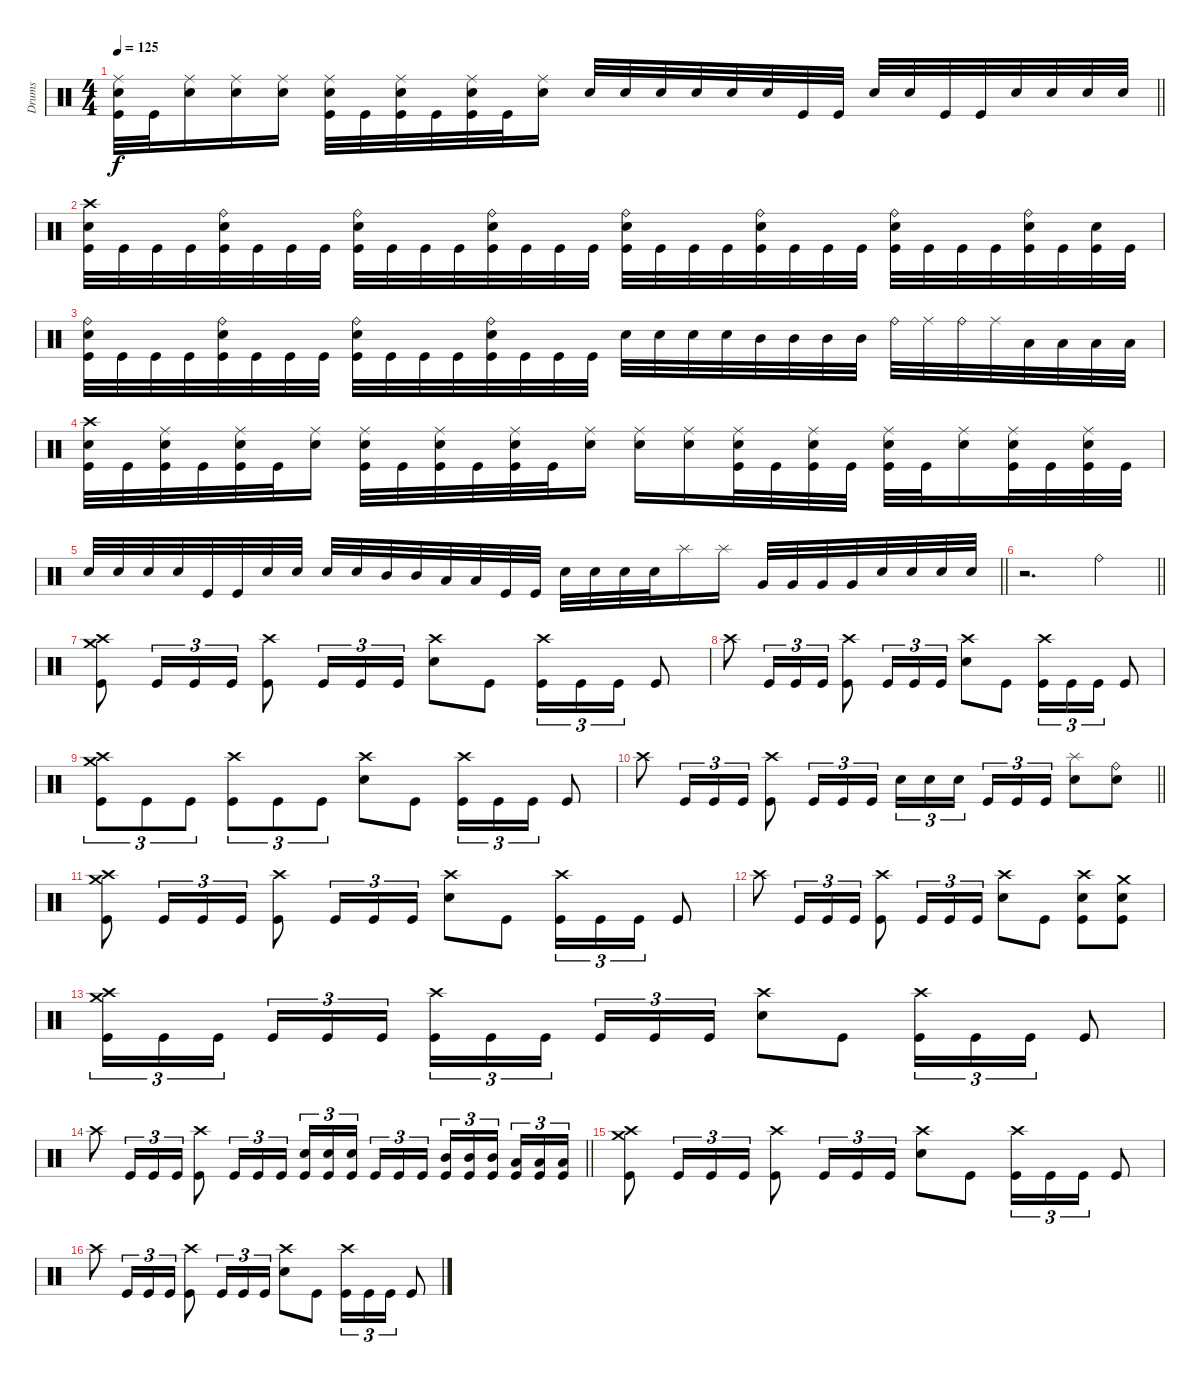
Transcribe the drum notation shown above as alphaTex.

\track ("Drums" "Drums") {instrument percussion}
\staff
\articulation defaults
\ts (4 4)
\tempo 125
\clef neutral
\barLineRight lightlight
\ks c
("Ride (middle)" "Electric Snare (hit)" "Kick (hit)").32{dy f} "Kick (hit)".32 ("Ride (middle)" "Electric Snare (hit)").16 ("Ride (middle)" "Electric Snare (hit)").16 ("Ride (middle)" "Electric Snare (hit)").16 ("Ride (middle)" "Electric Snare (hit)" "Kick (hit)").32 "Kick (hit)".32 ("Ride (middle)" "Electric Snare (hit)" "Kick (hit)").32 "Kick (hit)".32 ("Ride (middle)" "Electric Snare (hit)" "Kick (hit)").32 "Kick (hit)".32 ("Ride (middle)" "Electric Snare (hit)").16 "Electric Snare (hit)".32 "Electric Snare (hit)".32 "Electric Snare (hit)".32 "Electric Snare (hit)".32 "Electric Snare (hit)".32 "Electric Snare (hit)".32 "Kick (hit)".32 "Kick (hit)".32 "Electric Snare (hit)".32 "Electric Snare (hit)".32 "Kick (hit)".32 "Kick (hit)".32 "Electric Snare (hit)".32 "Electric Snare (hit)".32 "Electric Snare (hit)".32 "Electric Snare (hit)".32 |
("Crash high (hit)" "Electric Snare (hit)" "Kick (hit)").32 "Kick (hit)".32 "Kick (hit)".32 "Kick (hit)".32 ("Ride (bell)" "Electric Snare (hit)" "Kick (hit)").32 "Kick (hit)".32 "Kick (hit)".32 "Kick (hit)".32 ("Ride (bell)" "Electric Snare (hit)" "Kick (hit)").32 "Kick (hit)".32 "Kick (hit)".32 "Kick (hit)".32 ("Ride (bell)" "Electric Snare (hit)" "Kick (hit)").32 "Kick (hit)".32 "Kick (hit)".32 "Kick (hit)".32 ("Ride (bell)" "Electric Snare (hit)" "Kick (hit)").32 "Kick (hit)".32 "Kick (hit)".32 "Kick (hit)".32 ("Ride (bell)" "Electric Snare (hit)" "Kick (hit)").32 "Kick (hit)".32 "Kick (hit)".32 "Kick (hit)".32 ("Ride (bell)" "Electric Snare (hit)" "Kick (hit)").32 "Kick (hit)".32 "Kick (hit)".32 "Kick (hit)".32 ("Ride (bell)" "Electric Snare (hit)" "Kick (hit)").32 "Kick (hit)".32 ("Electric Snare (hit)" "Kick (hit)").32 "Kick (hit)".32 |
("Ride (bell)" "Electric Snare (hit)" "Kick (hit)").32 "Kick (hit)".32 "Kick (hit)".32 "Kick (hit)".32 ("Ride (bell)" "Electric Snare (hit)" "Kick (hit)").32 "Kick (hit)".32 "Kick (hit)".32 "Kick (hit)".32 ("Ride (bell)" "Electric Snare (hit)" "Kick (hit)").32 "Kick (hit)".32 "Kick (hit)".32 "Kick (hit)".32 ("Ride (bell)" "Electric Snare (hit)" "Kick (hit)").32 "Kick (hit)".32 "Kick (hit)".32 "Kick (hit)".32 "Electric Snare (hit)".32 "Electric Snare (hit)".32 "Electric Snare (hit)".32 "Electric Snare (hit)".32 "Mid Tom (hit)".32 "Mid Tom (hit)".32 "Mid Tom (hit)".32 "Mid Tom (hit)".32 "Ride (bell)".32 "Ride (middle)".32 "Ride (bell)".32 "Ride (middle)".32 "Low Tom (hit)".32 "Low Tom (hit)".32 "Low Tom (hit)".32 "Low Tom (hit)".32 |
("Crash high (hit)" "Electric Snare (hit)" "Kick (hit)").32 "Kick (hit)".32 ("Ride (middle)" "Electric Snare (hit)" "Kick (hit)").32 "Kick (hit)".32 ("Ride (middle)" "Electric Snare (hit)" "Kick (hit)").32 "Kick (hit)".32 ("Ride (middle)" "Electric Snare (hit)").16 ("Ride (middle)" "Electric Snare (hit)" "Kick (hit)").32 "Kick (hit)".32 ("Ride (middle)" "Electric Snare (hit)" "Kick (hit)").32 "Kick (hit)".32 ("Ride (middle)" "Electric Snare (hit)" "Kick (hit)").32 "Kick (hit)".32 ("Ride (middle)" "Electric Snare (hit)").16 ("Ride (middle)" "Electric Snare (hit)").16 ("Ride (middle)" "Electric Snare (hit)").16 ("Ride (middle)" "Electric Snare (hit)" "Kick (hit)").32 "Kick (hit)".32 ("Ride (middle)" "Electric Snare (hit)" "Kick (hit)").32 "Kick (hit)".32 ("Ride (middle)" "Electric Snare (hit)" "Kick (hit)").32 "Kick (hit)".32 ("Ride (middle)" "Electric Snare (hit)").16 ("Ride (middle)" "Electric Snare (hit)" "Kick (hit)").32 "Kick (hit)".32 ("Ride (middle)" "Electric Snare (hit)" "Kick (hit)").32 "Kick (hit)".32 |
\barLineRight lightlight "Electric Snare (hit)".32 "Electric Snare (hit)".32 "Electric Snare (hit)".32 "Electric Snare (hit)".32 "Kick (hit)".32 "Kick (hit)".32 "Electric Snare (hit)".32 "Electric Snare (hit)".32 "Electric Snare (hit)".32 "Electric Snare (hit)".32 "Mid Tom (hit)".32 "Mid Tom (hit)".32 "Low Tom (hit)".32 "Low Tom (hit)".32 "Kick (hit)".32 "Kick (hit)".32 "Electric Snare (hit)".32 "Electric Snare (hit)".32 "Electric Snare (hit)".32 "Electric Snare (hit)".32 "Splash (hit)".16 "Splash (hit)".16 "Very Low Tom (hit)".32 "Very Low Tom (hit)".32 "Very Low Tom (hit)".32 "Very Low Tom (hit)".32 "Electric Snare (hit)".32 "Electric Snare (hit)".32 "Electric Snare (hit)".32 "Electric Snare (hit)".32
|
\barLineRight lightlight
r.2{d} "Ride (bell)".4 |
\section ("" "")
("Crash high (hit)" "Crash medium (hit)" "Kick (hit)").8 "Kick (hit)".16{tu (3 2)} "Kick (hit)".16{tu (3 2)} "Kick (hit)".16{tu (3 2)} ("Crash high (hit)" "Kick (hit)").8 "Kick (hit)".16{tu (3 2)} "Kick (hit)".16{tu (3 2)} "Kick (hit)".16{tu (3 2)} ("Crash high (hit)" "Electric Snare (hit)").8 "Kick (hit)".8 ("Crash high (hit)" "Kick (hit)").16{tu (3 2)} "Kick (hit)".16{tu (3 2)} "Kick (hit)".16{tu (3 2)} "Kick (hit)".8 |
"Crash high (hit)".8 "Kick (hit)".16{tu (3 2)} "Kick (hit)".16{tu (3 2)} "Kick (hit)".16{tu (3 2)} ("Crash high (hit)" "Kick (hit)").8 "Kick (hit)".16{tu (3 2)} "Kick (hit)".16{tu (3 2)} "Kick (hit)".16{tu (3 2)} ("Crash high (hit)" "Electric Snare (hit)").8 "Kick (hit)".8 ("Crash high (hit)" "Kick (hit)").16{tu (3 2)} "Kick (hit)".16{tu (3 2)} "Kick (hit)".16{tu (3 2)} "Kick (hit)".8 |
("Crash high (hit)" "Crash medium (hit)" "Kick (hit)").8{tu (3 2)} "Kick (hit)".8{tu (3 2)} "Kick (hit)".8{tu (3 2)} ("Crash high (hit)" "Kick (hit)").8{tu (3 2)} "Kick (hit)".8{tu (3 2)} "Kick (hit)".8{tu (3 2)} ("Crash high (hit)" "Electric Snare (hit)").8 "Kick (hit)".8 ("Crash high (hit)" "Kick (hit)").16{tu (3 2)} "Kick (hit)".16{tu (3 2)} "Kick (hit)".16{tu (3 2)} "Kick (hit)".8 |
\barLineRight lightlight "Crash high (hit)".8 "Kick (hit)".16{tu (3 2)} "Kick (hit)".16{tu (3 2)} "Kick (hit)".16{tu (3 2)}
("Crash high (hit)" "Kick (hit)").8 "Kick (hit)".16{tu (3 2)} "Kick (hit)".16{tu (3 2)} "Kick (hit)".16{tu (3 2)} "Electric Snare (hit)".16{tu (3 2)} "Electric Snare (hit)".16{tu (3 2)} "Electric Snare (hit)".16{tu (3 2) beam splitsecondary} "Kick (hit)".16{tu (3 2)} "Kick (hit)".16{tu (3 2)} "Kick (hit)".16{tu (3 2)} ("Splash (hit)" "Electric Snare (hit)").8 ("Ride (bell)" "Electric Snare (hit)").8 |
("Crash high (hit)" "Crash medium (hit)" "Kick (hit)").8 "Kick (hit)".16{tu (3 2)} "Kick (hit)".16{tu (3 2)} "Kick (hit)".16{tu (3 2)} ("Crash high (hit)" "Kick (hit)").8 "Kick (hit)".16{tu (3 2)} "Kick (hit)".16{tu (3 2)} "Kick (hit)".16{tu (3 2)} ("Crash high (hit)" "Electric Snare (hit)").8 "Kick (hit)".8 ("Crash high (hit)" "Kick (hit)").16{tu (3 2)} "Kick (hit)".16{tu (3 2)} "Kick (hit)".16{tu (3 2)} "Kick (hit)".8 |
"Crash high (hit)".8 "Kick (hit)".16{tu (3 2)} "Kick (hit)".16{tu (3 2)} "Kick (hit)".16{tu (3 2)} ("Crash high (hit)" "Kick (hit)").8 "Kick (hit)".16{tu (3 2)} "Kick (hit)".16{tu (3 2)} "Kick (hit)".16{tu (3 2)} ("Crash high (hit)" "Electric Snare (hit)").8 "Kick (hit)".8 ("Crash high (hit)" "Electric Snare (hit)" "Kick (hit)").8 ("Crash medium (hit)" "Electric Snare (hit)" "Kick (hit)").8 |
("Crash high (hit)" "Crash medium (hit)" "Kick (hit)").16{tu (3 2)} "Kick (hit)".16{tu (3 2)} "Kick (hit)".16{tu (3 2) beam splitsecondary} "Kick (hit)".16{tu (3 2)} "Kick (hit)".16{tu (3 2)} "Kick (hit)".16{tu (3 2)} ("Crash high (hit)" "Kick (hit)").16{tu (3 2)} "Kick (hit)".16{tu (3 2)} "Kick (hit)".16{tu (3 2) beam splitsecondary} "Kick (hit)".16{tu (3 2)} "Kick (hit)".16{tu (3 2)} "Kick (hit)".16{tu (3 2)} ("Crash high (hit)" "Electric Snare (hit)").8 "Kick (hit)".8 ("Crash high (hit)" "Kick (hit)").16{tu (3 2)} "Kick (hit)".16{tu (3 2)} "Kick (hit)".16{tu (3 2)} "Kick (hit)".8 |
\barLineRight lightlight "Crash high (hit)".8 "Kick (hit)".16{tu (3 2)} "Kick (hit)".16{tu (3 2)} "Kick (hit)".16{tu (3 2)}
("Crash high (hit)" "Kick (hit)").8 "Kick (hit)".16{tu (3 2)} "Kick (hit)".16{tu (3 2)} "Kick (hit)".16{tu (3 2)} ("Electric Snare (hit)" "Kick (hit)").16{tu (3 2)} ("Electric Snare (hit)" "Kick (hit)").16{tu (3 2)} ("Electric Snare (hit)" "Kick (hit)").16{tu (3 2) beam splitsecondary} "Kick (hit)".16{tu (3 2)} "Kick (hit)".16{tu (3 2)} "Kick (hit)".16{tu (3 2)} ("Mid Tom (hit)" "Kick (hit)").16{tu (3 2)} ("Mid Tom (hit)" "Kick (hit)").16{tu (3 2)} ("Mid Tom (hit)" "Kick (hit)").16{tu (3 2) beam splitsecondary} ("Low Tom (hit)" "Kick (hit)").16{tu (3 2)} ("Low Tom (hit)" "Kick (hit)").16{tu (3 2)} ("Low Tom (hit)" "Kick (hit)").16{tu (3 2)} |
("Crash high (hit)" "Crash medium (hit)" "Kick (hit)").8 "Kick (hit)".16{tu (3 2)} "Kick (hit)".16{tu (3 2)} "Kick (hit)".16{tu (3 2)} ("Crash high (hit)" "Kick (hit)").8 "Kick (hit)".16{tu (3 2)} "Kick (hit)".16{tu (3 2)} "Kick (hit)".16{tu (3 2)} ("Crash high (hit)" "Electric Snare (hit)").8 "Kick (hit)".8 ("Crash high (hit)" "Kick (hit)").16{tu (3 2)} "Kick (hit)".16{tu (3 2)} "Kick (hit)".16{tu (3 2)} "Kick (hit)".8 |
"Crash high (hit)".8 "Kick (hit)".16{tu (3 2)} "Kick (hit)".16{tu (3 2)} "Kick (hit)".16{tu (3 2)} ("Crash high (hit)" "Kick (hit)").8 "Kick (hit)".16{tu (3 2)} "Kick (hit)".16{tu (3 2)} "Kick (hit)".16{tu (3 2)} ("Crash high (hit)" "Electric Snare (hit)").8 "Kick (hit)".8 ("Crash high (hit)" "Kick (hit)").16{tu (3 2)} "Kick (hit)".16{tu (3 2)} "Kick (hit)".16{tu (3 2)} "Kick (hit)".8
